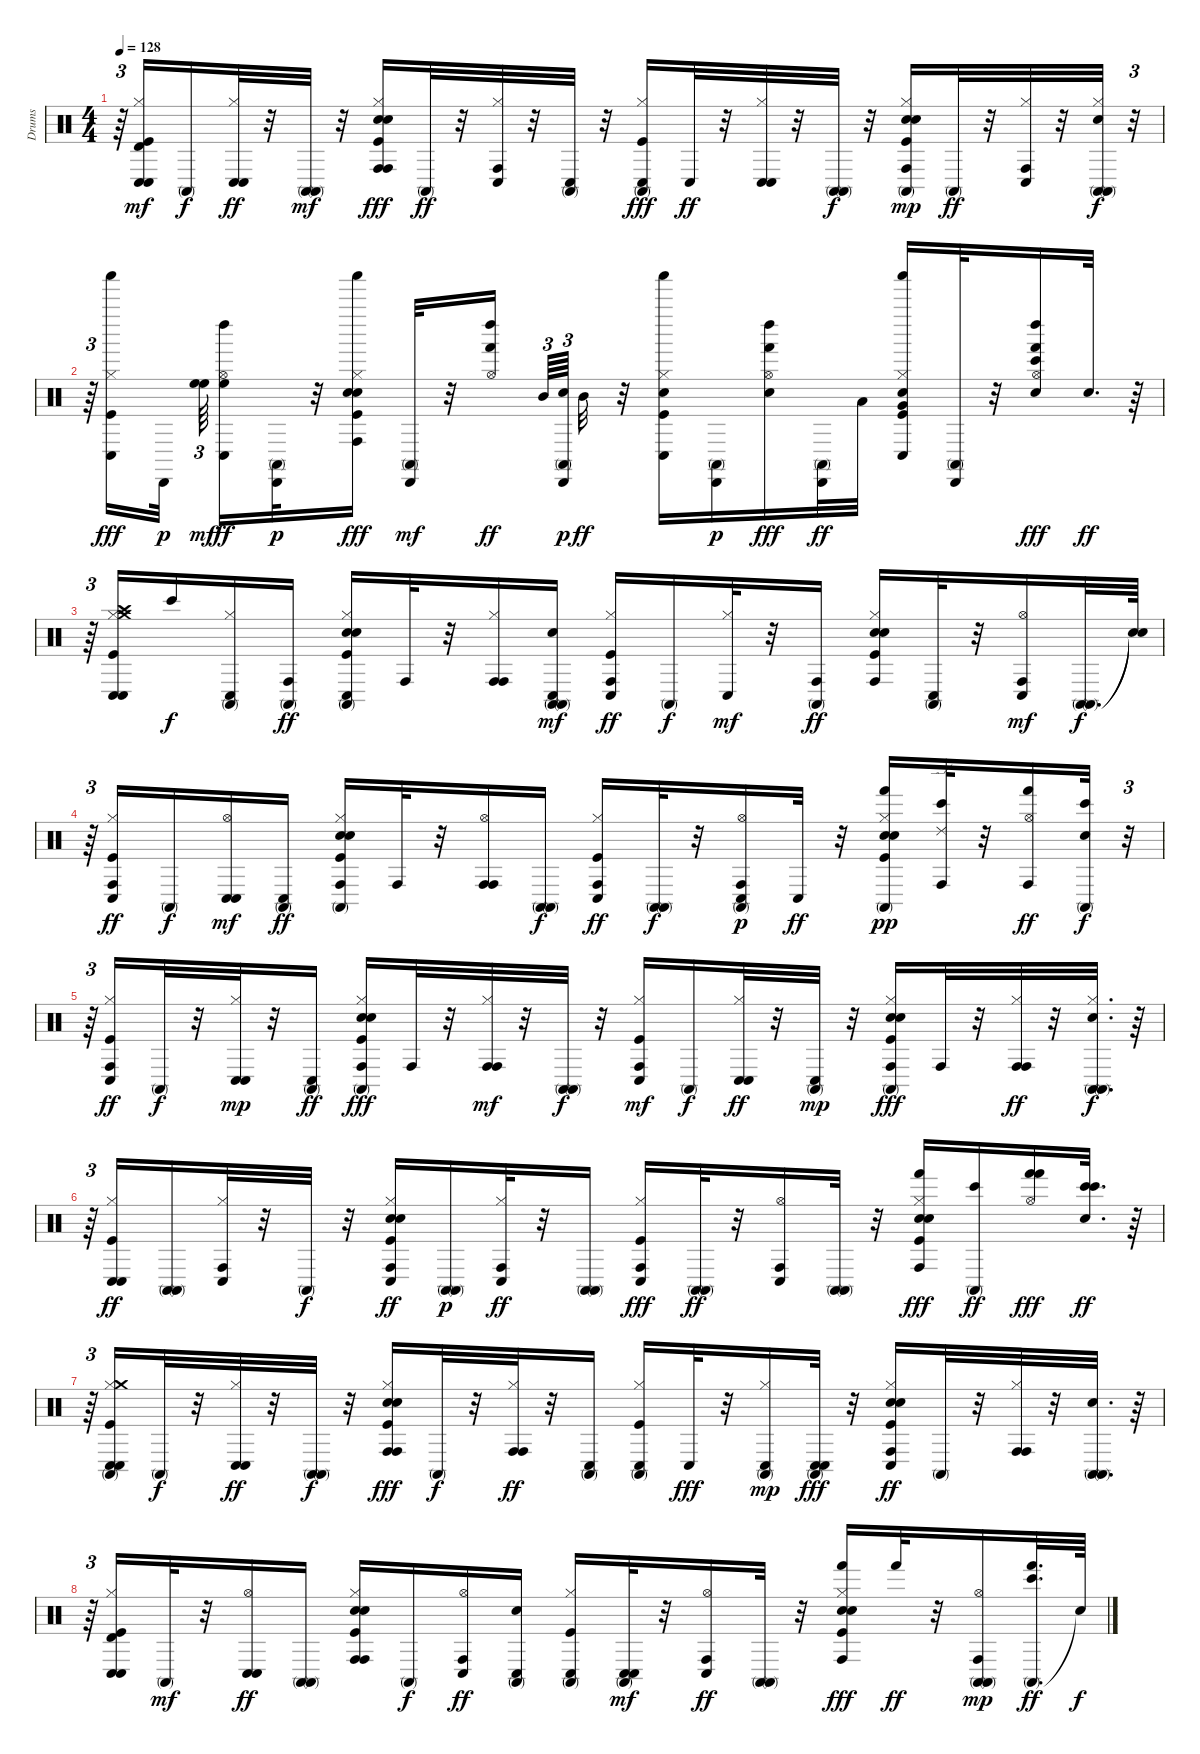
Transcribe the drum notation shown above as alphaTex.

\track ("Drums" "Drums") {instrument percussion}
\staff {score}
\articulation defaults
\ts (4 4)
\tempo 128
\clef neutral
\ks c
r.64{tu (3 2) dy f} ("Kick (hit)" "Hi-Hat (closed)" "Conga low (hit)" "Conga low (hit)" "Timbale high (hit)").16{dy mf} "Conga high (mute)".16{dy f} ("Hi-Hat (closed)" "Conga low (hit)" "Conga low (hit)").32{dy ff} r.32 ("Conga high (mute)" "Conga high (mute)").32{dy mf} r.32 ("Kick (hit)" "Snare (hit) 2" "Hand Clap (hit)" "Hi-Hat (closed)" "Conga high (hit)" "Conga high (hit)").16{dy fff} "Conga high (mute)".32{dy ff} r.32 ("Hi-Hat (closed)" "Conga low (hit)" "Conga high (hit)").32 r.32 ("Conga low (hit)" "Conga high (mute)").32 r.32 ("Kick (hit)" "Hi-Hat (closed)" "Conga high (mute)" "Conga low (hit)").16{dy fff} "Conga low (hit)".32{dy ff} r.32 ("Hi-Hat (closed)" "Conga low (hit)" "Conga low (hit)").32 r.32 ("Conga high (mute)" "Conga high (mute)").32{dy f} r.32 ("Kick (hit)" "Snare (hit) 2" "Hand Clap (hit)" "Hi-Hat (closed)" "Conga high (hit)" "Conga high (mute)").16{dy mp} "Conga high (mute)".32{dy ff} r.32 ("Hi-Hat (closed)" "Conga low (hit)" "Conga high (hit)").32 r.32 ("Snare (hit) 2" "Hi-Hat (closed)" "Conga high (mute)" "Conga high (mute)").32{dy f} r.32{tu (3 2)} |
r.64{tu (3 2)} ("Kick (hit)" "Hi-Hat (closed)" "Shaker (hit)" "Conga low (hit)").16{dy fff} "Cabasa (hit)".32{dy p beam splitsecondary} ("High Floor Tom (hit)" "High Floor Tom (hit)").64{tu (3 2) dy mf beam splitsecondary} ("Hi-Hat (open)" "Left Maraca (hit)" "High Floor Tom (hit)" "Conga low (hit)").16{dy ff} ("Cabasa (hit)" "Conga high (mute)").32{dy p} r.32 ("Kick (hit)" "Snare (hit) 2" "Hand Clap (hit)" "Hi-Hat (closed)" "Shaker (hit)" "Conga high (hit)").16{dy fff} ("Cabasa (hit)" "Conga high (mute)").32{dy mf} r.32 ("Hi-Hat (open)" "Left Maraca (hit)" "Hand (hit)").16{dy ff beam splitsecondary} "Mid Tom (hit)".64{tu (3 2)} ("Snare (hit) 2" "Cabasa (hit)" "Conga high (mute)").64{tu (3 2) dy p beam splitsecondary} "Mid Tom (hit)".32{dy ff} r.32 ("Kick (hit)" "Snare (hit) 2" "Hi-Hat (closed)" "Shaker (hit)" "Conga low (hit)").16 ("Cabasa (hit)" "Conga high (mute)").16{dy p} ("Snare (hit) 2" "Hi-Hat (open)" "Left Maraca (hit)" "Hand (hit)").16{dy fff} ("Cabasa (hit)" "Conga high (mute)").32{dy ff} "Low Tom (hit)".32 ("Kick (hit)" "Hand Clap (hit)" "Hi-Hat (closed)" "Shaker (hit)" "Conga low (hit)" "Very Low Tom (hit)").16 ("Cabasa (hit)" "Conga high (mute)").32 r.32 ("Snare (hit) 2" "Hi-Hat (open)" "Left Maraca (hit)" "Hand (hit)" "Bongo High (hit)").16{dy fff} "Snare (hit) 2".32{d dy ff} r.64 |
r.64{tu (3 2)} ("Kick (hit)" "Hi-Hat (closed)" "Crash high (hit)" "Crash medium (hit)" "Conga low (hit)" "Conga low (hit)").16 "Bongo High (hit)".16{dy f} ("Hi-Hat (closed)" "Conga high (mute)" "Conga low (hit)").16 ("Conga high (hit)" "Conga high (mute)").16{dy ff} ("Kick (hit)" "Snare (hit) 2" "Hand Clap (hit)" "Hi-Hat (closed)" "Conga high (mute)" "Conga low (hit)").16 "Conga high (hit)".32 r.32 ("Hi-Hat (closed)" "Conga high (hit)" "Conga high (hit)").16 ("Snare (hit) 2" "Conga high (mute)" "Conga high (mute)" "Conga low (hit)").16{dy mf} ("Kick (hit)" "Hi-Hat (closed)" "Conga high (hit)" "Conga low (hit)").16{dy ff} "Conga high (mute)".16{dy f} ("Hi-Hat (closed)" "Conga low (hit)").32{dy mf} r.32 ("Conga high (hit)" "Conga high (mute)").16{dy ff} ("Kick (hit)" "Snare (hit) 2" "Hand Clap (hit)" "Hi-Hat (closed)" "Conga high (hit)").16 ("Conga high (mute)" "Conga low (hit)").32 r.32 ("Hi-Hat (open)" "Conga low (hit)" "Conga high (hit)").16{dy mf} ("Conga high (mute)" "Conga high (mute)").32{d dy f} ("Snare (hit)"{t} "Snare (hit)"{t}).64 |
r.64{tu (3 2)} ("Kick (hit)" "Hi-Hat (closed)" "Conga high (hit)" "Conga low (hit)").16{dy ff} "Conga high (mute)".16{dy f} ("Hi-Hat (open)" "Conga low (hit)" "Conga low (hit)").16{dy mf} ("Conga low (hit)" "Conga high (mute)").16{dy ff} ("Kick (hit)" "Snare (hit) 2" "Hand Clap (hit)" "Hi-Hat (closed)" "Conga high (mute)" "Conga high (hit)").16 "Conga high (hit)".32 r.32 ("Hi-Hat (open)" "Conga high (hit)" "Conga high (hit)").16 ("Conga high (mute)" "Conga high (mute)").16{dy f} ("Kick (hit)" "Hi-Hat (closed)" "Conga high (hit)" "Conga low (hit)").16{dy ff} ("Conga high (mute)" "Conga high (mute)").32{dy f} r.32 ("Hi-Hat (open)" "Conga low (hit)" "Conga high (hit)" "Conga high (mute)").16{dy p} "Conga low (hit)".32{dy ff} r.32 ("Kick (hit)" "Snare (hit) 2" "Hand Clap (hit)" "Hi-Hat (closed)" "Conga high (mute)" "Hand (hit)").16{dy pp} ("Conga high (hit)" "Bongo High (hit)" "Ride (edge) 2").32 r.32 ("Hi-Hat (open)" "Conga high (hit)" "Hand (hit)").16{dy ff} ("Snare (hit) 2" "Conga high (mute)" "Bongo High (hit)").32{dy f} r.32{tu (3 2)} |
r.64{tu (3 2)} ("Kick (hit)" "Hi-Hat (closed)" "Conga high (hit)" "Conga low (hit)").16{dy ff} "Conga high (mute)".32{dy f} r.32 ("Hi-Hat (closed)" "Conga low (hit)" "Conga low (hit)").32{dy mp} r.32 ("Conga low (hit)" "Conga high (mute)").16{dy ff} ("Kick (hit)" "Snare (hit) 2" "Hand Clap (hit)" "Hi-Hat (closed)" "Conga high (mute)" "Conga high (hit)").16{dy fff} "Conga high (hit)".32 r.32 ("Hi-Hat (closed)" "Conga high (hit)" "Conga high (hit)").32{dy mf} r.32 ("Conga high (mute)" "Conga high (mute)").32{dy f} r.32 ("Kick (hit)" "Hi-Hat (closed)" "Conga high (hit)" "Conga low (hit)").16{dy mf} "Conga high (mute)".16{dy f} ("Hi-Hat (closed)" "Conga low (hit)" "Conga low (hit)").32{dy ff} r.32 ("Conga low (hit)" "Conga high (mute)").32{dy mp} r.32 ("Kick (hit)" "Snare (hit) 2" "Hand Clap (hit)" "Hi-Hat (closed)" "Conga high (mute)" "Conga high (hit)").16{dy fff} "Conga high (hit)".32 r.32 ("Hi-Hat (closed)" "Conga high (hit)" "Conga high (hit)").32{dy ff} r.32 ("Snare (hit) 2" "Hi-Hat (closed)" "Conga high (mute)" "Conga high (mute)").32{d dy f} r.64 |
r.64{tu (3 2)} ("Kick (hit)" "Hi-Hat (closed)" "Conga low (hit)" "Conga low (hit)").16{dy ff} ("Conga high (mute)" "Conga high (mute)").16 ("Hi-Hat (closed)" "Conga high (hit)" "Conga low (hit)").32 r.32 "Conga high (mute)".32{dy f} r.32 ("Kick (hit)" "Snare (hit) 2" "Hand Clap (hit)" "Hi-Hat (closed)" "Conga low (hit)" "Conga high (hit)").16{dy ff} ("Conga high (mute)" "Conga high (mute)").16{dy p} ("Hi-Hat (closed)" "Conga high (hit)" "Conga low (hit)").32{dy ff} r.32 ("Conga high (mute)" "Conga high (mute)").16 ("Kick (hit)" "Hi-Hat (closed)" "Conga low (hit)" "Conga high (hit)").16{dy fff} ("Conga high (mute)" "Conga high (mute)").32{dy ff} r.32 ("Hi-Hat (open)" "Conga high (hit)" "Conga low (hit)").16 ("Conga high (mute)" "Conga high (mute)").32 r.32 ("Kick (hit)" "Snare (hit) 2" "Hand Clap (hit)" "Hi-Hat (closed)" "Hand (hit)" "Conga high (hit)").16{dy fff} ("Bongo High (hit)" "Conga high (mute)").16{dy ff} ("Hi-Hat (open)" "Hand (hit)" "Hand (hit)").16{dy fff} ("Snare (hit) 2" "Bongo High (hit)" "Bongo High (hit)").32{d dy ff} r.64 |
r.64{tu (3 2)} ("Kick (hit)" "Hi-Hat (closed)" "Crash medium (hit)" "Conga low (hit)" "Conga low (hit)" "Conga high (mute)").16 "Conga high (mute)".32{dy f} r.32 ("Hi-Hat (closed)" "Conga low (hit)" "Conga low (hit)").32{dy ff} r.32 ("Conga high (mute)" "Conga high (mute)").32{dy f} r.32 ("Kick (hit)" "Snare (hit) 2" "Hand Clap (hit)" "Hi-Hat (closed)" "Conga high (hit)" "Conga high (hit)").16{dy fff} "Conga high (mute)".32{dy f} r.32 ("Hi-Hat (closed)" "Conga high (hit)" "Conga high (hit)").32{dy ff} r.32 ("Conga low (hit)" "Conga high (mute)").16 ("Kick (hit)" "Hi-Hat (closed)" "Conga high (mute)" "Conga low (hit)").16 "Conga low (hit)".32{dy fff} r.32 ("Hi-Hat (closed)" "Conga high (mute)" "Conga low (hit)").16{dy mp} ("Conga low (hit)" "Conga high (mute)" "Conga low (hit)").32{dy fff} r.32 ("Kick (hit)" "Snare (hit) 2" "Hand Clap (hit)" "Hi-Hat (closed)" "Conga low (hit)" "Conga high (hit)").16{dy ff} "Conga high (mute)".32 r.32 ("Hi-Hat (closed)" "Conga high (hit)" "Conga high (hit)").32 r.32 ("Snare (hit) 2" "Conga high (mute)" "Conga high (mute)").32{d} r.64 |
r.64{tu (3 2)} ("Kick (hit)" "Hi-Hat (closed)" "Conga low (hit)" "Timbale high (hit)" "Conga low (hit)").16 "Conga high (mute)".32{dy mf} r.32 ("Hi-Hat (open)" "Conga low (hit)" "Conga low (hit)").16{dy ff} ("Conga high (mute)" "Conga high (mute)").16 ("Kick (hit)" "Snare (hit) 2" "Hand Clap (hit)" "Hi-Hat (closed)" "Conga high (hit)" "Conga high (hit)").16 "Conga high (mute)".16{dy f} ("Hi-Hat (open)" "Conga low (hit)" "Conga high (hit)").16{dy ff} ("Snare (hit) 2" "Conga low (hit)" "Conga high (mute)").16 ("Kick (hit)" "Hi-Hat (closed)" "Conga high (mute)" "Conga low (hit)").16 ("Conga low (hit)" "Conga high (mute)" "Conga low (hit)").32{dy mf} r.32 ("Hi-Hat (open)" "Conga low (hit)" "Conga high (hit)").16{dy ff} ("Conga high (mute)" "Conga high (mute)").32 r.32 ("Kick (hit)" "Snare (hit) 2" "Hand Clap (hit)" "Hi-Hat (closed)" "Conga high (hit)" "Hand (hit)").16{dy fff} "Hand (hit)".32{dy ff} r.32 ("Hi-Hat (open)" "Conga high (mute)" "Conga high (hit)" "Conga high (mute)").16{dy mp} ("Conga high (mute)" "Hand (hit)" "Bongo High (hit)").32{d dy ff} "Snare (hit)"{t}.64{dy f}
